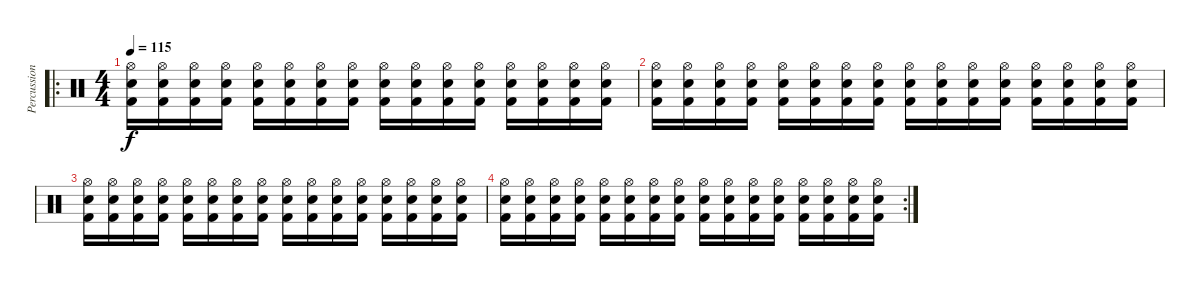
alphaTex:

\track ("Percussion" "Percussion") {instrument percussion}
\staff {score}
\articulation defaults
\ro
\ts (4 4)
\tempo 115
\clef neutral
\ks c
("Hi-Hat (open)" "Snare (hit) 2" "Kick (hit) 2").16{dy f} ("Hi-Hat (open)" "Snare (hit) 2" "Kick (hit) 2").16 ("Hi-Hat (open)" "Snare (hit) 2" "Kick (hit) 2").16 ("Hi-Hat (open)" "Snare (hit) 2" "Kick (hit) 2").16 ("Hi-Hat (open)" "Snare (hit) 2" "Kick (hit) 2").16 ("Hi-Hat (open)" "Snare (hit) 2" "Kick (hit) 2").16 ("Hi-Hat (open)" "Snare (hit) 2" "Kick (hit) 2").16 ("Hi-Hat (open)" "Snare (hit) 2" "Kick (hit) 2").16 ("Hi-Hat (open)" "Snare (hit) 2" "Kick (hit) 2").16 ("Hi-Hat (open)" "Snare (hit) 2" "Kick (hit) 2").16 ("Hi-Hat (open)" "Snare (hit) 2" "Kick (hit) 2").16 ("Hi-Hat (open)" "Snare (hit) 2" "Kick (hit) 2").16 ("Hi-Hat (open)" "Snare (hit) 2" "Kick (hit) 2").16 ("Hi-Hat (open)" "Snare (hit) 2" "Kick (hit) 2").16 ("Hi-Hat (open)" "Snare (hit) 2" "Kick (hit) 2").16 ("Hi-Hat (open)" "Snare (hit) 2" "Kick (hit) 2").16 |
("Hi-Hat (open)" "Snare (hit) 2" "Kick (hit) 2").16 ("Hi-Hat (open)" "Snare (hit) 2" "Kick (hit) 2").16 ("Hi-Hat (open)" "Snare (hit) 2" "Kick (hit) 2").16 ("Hi-Hat (open)" "Snare (hit) 2" "Kick (hit) 2").16 ("Hi-Hat (open)" "Snare (hit) 2" "Kick (hit) 2").16 ("Hi-Hat (open)" "Snare (hit) 2" "Kick (hit) 2").16 ("Hi-Hat (open)" "Snare (hit) 2" "Kick (hit) 2").16 ("Hi-Hat (open)" "Snare (hit) 2" "Kick (hit) 2").16 ("Hi-Hat (open)" "Snare (hit) 2" "Kick (hit) 2").16 ("Hi-Hat (open)" "Snare (hit) 2" "Kick (hit) 2").16 ("Hi-Hat (open)" "Snare (hit) 2" "Kick (hit) 2").16 ("Hi-Hat (open)" "Snare (hit) 2" "Kick (hit) 2").16 ("Hi-Hat (open)" "Snare (hit) 2" "Kick (hit) 2").16 ("Hi-Hat (open)" "Snare (hit) 2" "Kick (hit) 2").16 ("Hi-Hat (open)" "Snare (hit) 2" "Kick (hit) 2").16 ("Hi-Hat (open)" "Snare (hit) 2" "Kick (hit) 2").16 |
("Hi-Hat (open)" "Snare (hit) 2" "Kick (hit) 2").16 ("Hi-Hat (open)" "Snare (hit) 2" "Kick (hit) 2").16 ("Hi-Hat (open)" "Snare (hit) 2" "Kick (hit) 2").16 ("Hi-Hat (open)" "Snare (hit) 2" "Kick (hit) 2").16 ("Hi-Hat (open)" "Snare (hit) 2" "Kick (hit) 2").16 ("Hi-Hat (open)" "Snare (hit) 2" "Kick (hit) 2").16 ("Hi-Hat (open)" "Snare (hit) 2" "Kick (hit) 2").16 ("Hi-Hat (open)" "Snare (hit) 2" "Kick (hit) 2").16 ("Hi-Hat (open)" "Snare (hit) 2" "Kick (hit) 2").16 ("Hi-Hat (open)" "Snare (hit) 2" "Kick (hit) 2").16 ("Hi-Hat (open)" "Snare (hit) 2" "Kick (hit) 2").16 ("Hi-Hat (open)" "Snare (hit) 2" "Kick (hit) 2").16 ("Hi-Hat (open)" "Snare (hit) 2" "Kick (hit) 2").16 ("Hi-Hat (open)" "Snare (hit) 2" "Kick (hit) 2").16 ("Hi-Hat (open)" "Snare (hit) 2" "Kick (hit) 2").16 ("Hi-Hat (open)" "Snare (hit) 2" "Kick (hit) 2").16 |
\rc 2
("Hi-Hat (open)" "Snare (hit) 2" "Kick (hit) 2").16 ("Hi-Hat (open)" "Snare (hit) 2" "Kick (hit) 2").16 ("Hi-Hat (open)" "Snare (hit) 2" "Kick (hit) 2").16 ("Hi-Hat (open)" "Snare (hit) 2" "Kick (hit) 2").16 ("Hi-Hat (open)" "Snare (hit) 2" "Kick (hit) 2").16 ("Hi-Hat (open)" "Snare (hit) 2" "Kick (hit) 2").16 ("Hi-Hat (open)" "Snare (hit) 2" "Kick (hit) 2").16 ("Hi-Hat (open)" "Snare (hit) 2" "Kick (hit) 2").16 ("Hi-Hat (open)" "Snare (hit) 2" "Kick (hit) 2").16 ("Hi-Hat (open)" "Snare (hit) 2" "Kick (hit) 2").16 ("Hi-Hat (open)" "Snare (hit) 2" "Kick (hit) 2").16 ("Hi-Hat (open)" "Snare (hit) 2" "Kick (hit) 2").16 ("Hi-Hat (open)" "Snare (hit) 2" "Kick (hit) 2").16 ("Hi-Hat (open)" "Snare (hit) 2" "Kick (hit) 2").16 ("Hi-Hat (open)" "Snare (hit) 2" "Kick (hit) 2").16 ("Hi-Hat (open)" "Snare (hit) 2" "Kick (hit) 2").16
